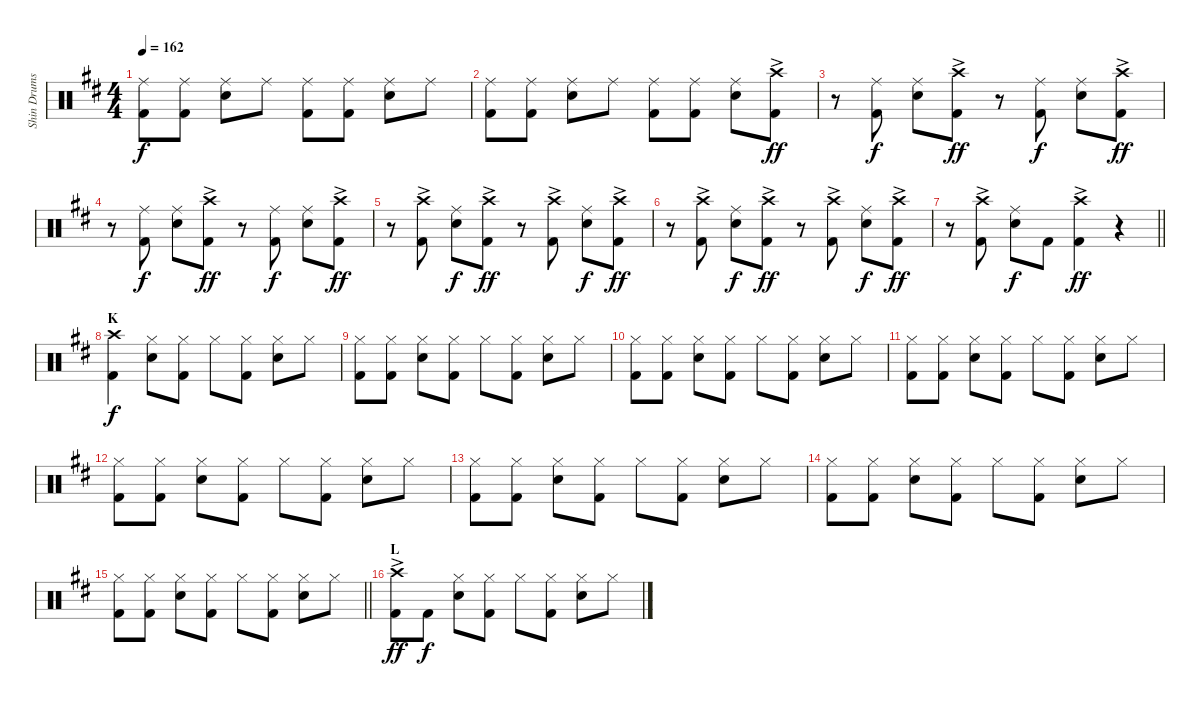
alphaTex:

\track ("Shin Drums" "Shin Drums") {instrument percussion}
\staff {score}
\articulation defaults
\ts (4 4)
\tempo 162
\clef neutral
\ks d
("Ride (middle)" "Kick (hit) 2").8{dy f} ("Ride (middle)" "Kick (hit) 2").8 ("Ride (middle)" "Snare (hit) 2").8 "Ride (middle)".8 ("Ride (middle)" "Kick (hit) 2").8 ("Ride (middle)" "Kick (hit) 2").8 ("Ride (middle)" "Snare (hit) 2").8 "Ride (middle)".8 |
("Ride (middle)" "Kick (hit) 2").8 ("Ride (middle)" "Kick (hit) 2").8 ("Ride (middle)" "Snare (hit) 2").8 "Ride (middle)".8 ("Ride (middle)" "Kick (hit) 2").8 ("Ride (middle)" "Kick (hit) 2").8 ("Ride (middle)" "Snare (hit) 2").8 ("Crash high (hit)"{ac} "Kick (hit) 2").8{dy ff} |
r.8 ("Ride (middle)" "Kick (hit) 2").8{dy f} ("Ride (middle)" "Snare (hit) 2").8 ("Crash high (hit)"{ac} "Kick (hit) 2").8{dy ff} r.8 ("Ride (middle)" "Kick (hit) 2").8{dy f} ("Ride (middle)" "Snare (hit) 2").8 ("Crash high (hit)"{ac} "Kick (hit) 2").8{dy ff} |
r.8 ("Ride (middle)" "Kick (hit) 2").8{dy f} ("Ride (middle)" "Snare (hit) 2").8 ("Crash high (hit)"{ac} "Kick (hit) 2").8{dy ff} r.8 ("Ride (middle)" "Kick (hit) 2").8{dy f} ("Ride (middle)" "Snare (hit) 2").8 ("Crash high (hit)"{ac} "Kick (hit) 2").8{dy ff} |
r.8 ("Crash high (hit)"{ac} "Kick (hit) 2").8 ("Ride (middle)" "Snare (hit) 2").8{dy f} ("Crash high (hit)"{ac} "Kick (hit) 2").8{dy ff} r.8 ("Crash high (hit)"{ac} "Kick (hit) 2").8 ("Ride (middle)" "Snare (hit) 2").8{dy f} ("Crash high (hit)"{ac} "Kick (hit) 2").8{dy ff} |
r.8 ("Crash high (hit)"{ac} "Kick (hit) 2").8 ("Ride (middle)" "Snare (hit) 2").8{dy f} ("Crash high (hit)"{ac} "Kick (hit) 2").8{dy ff} r.8 ("Crash high (hit)"{ac} "Kick (hit) 2").8 ("Ride (middle)" "Snare (hit) 2").8{dy f} ("Crash high (hit)"{ac} "Kick (hit) 2").8{dy ff} |
\barLineRight lightlight
r.8 ("Crash high (hit)"{ac} "Kick (hit) 2").8 ("Ride (middle)" "Snare (hit) 2").8{dy f} "Kick (hit) 2".8 ("Crash high (hit)"{ac} "Kick (hit) 2").4{dy ff} r.4 |
\section ("" "K")
("Crash high (hit)" "Kick (hit) 2").4{dy f} ("Hi-Hat (closed)" "Snare (hit) 2").8 ("Hi-Hat (closed)" "Kick (hit) 2").8 "Hi-Hat (closed)".8 ("Hi-Hat (closed)" "Kick (hit) 2").8 ("Hi-Hat (closed)" "Snare (hit) 2").8 "Hi-Hat (closed)".8 |
("Hi-Hat (closed)" "Kick (hit) 2").8 ("Hi-Hat (closed)" "Kick (hit) 2").8 ("Hi-Hat (closed)" "Snare (hit) 2").8 ("Hi-Hat (closed)" "Kick (hit) 2").8 "Hi-Hat (closed)".8 ("Hi-Hat (closed)" "Kick (hit) 2").8 ("Hi-Hat (closed)" "Snare (hit) 2").8 "Hi-Hat (closed)".8 |
("Hi-Hat (closed)" "Kick (hit) 2").8 ("Hi-Hat (closed)" "Kick (hit) 2").8 ("Hi-Hat (closed)" "Snare (hit) 2").8 ("Hi-Hat (closed)" "Kick (hit) 2").8 "Hi-Hat (closed)".8 ("Hi-Hat (closed)" "Kick (hit) 2").8 ("Hi-Hat (closed)" "Snare (hit) 2").8 "Hi-Hat (closed)".8 |
("Hi-Hat (closed)" "Kick (hit) 2").8 ("Hi-Hat (closed)" "Kick (hit) 2").8 ("Hi-Hat (closed)" "Snare (hit) 2").8 ("Hi-Hat (closed)" "Kick (hit) 2").8 "Hi-Hat (closed)".8 ("Hi-Hat (closed)" "Kick (hit) 2").8 ("Hi-Hat (closed)" "Snare (hit) 2").8 "Hi-Hat (closed)".8 |
("Hi-Hat (closed)" "Kick (hit) 2").8 ("Hi-Hat (closed)" "Kick (hit) 2").8 ("Hi-Hat (closed)" "Snare (hit) 2").8 ("Hi-Hat (closed)" "Kick (hit) 2").8 "Hi-Hat (closed)".8 ("Hi-Hat (closed)" "Kick (hit) 2").8 ("Hi-Hat (closed)" "Snare (hit) 2").8 "Hi-Hat (closed)".8 |
("Hi-Hat (closed)" "Kick (hit) 2").8 ("Hi-Hat (closed)" "Kick (hit) 2").8 ("Hi-Hat (closed)" "Snare (hit) 2").8 ("Hi-Hat (closed)" "Kick (hit) 2").8 "Hi-Hat (closed)".8 ("Hi-Hat (closed)" "Kick (hit) 2").8 ("Hi-Hat (closed)" "Snare (hit) 2").8 "Hi-Hat (closed)".8 |
("Hi-Hat (closed)" "Kick (hit) 2").8 ("Hi-Hat (closed)" "Kick (hit) 2").8 ("Hi-Hat (closed)" "Snare (hit) 2").8 ("Hi-Hat (closed)" "Kick (hit) 2").8 "Hi-Hat (closed)".8 ("Hi-Hat (closed)" "Kick (hit) 2").8 ("Hi-Hat (closed)" "Snare (hit) 2").8 "Hi-Hat (closed)".8 |
\barLineRight lightlight
("Hi-Hat (closed)" "Kick (hit) 2").8 ("Hi-Hat (closed)" "Kick (hit) 2").8 ("Hi-Hat (closed)" "Snare (hit) 2").8 ("Hi-Hat (closed)" "Kick (hit) 2").8 "Hi-Hat (closed)".8 ("Hi-Hat (closed)" "Kick (hit) 2").8 ("Hi-Hat (closed)" "Snare (hit) 2").8 "Hi-Hat (closed)".8 |
\section ("" "L")
("Crash high (hit)"{ac} "Kick (hit) 2").8{dy ff} "Kick (hit) 2".8{dy f} ("Hi-Hat (closed)" "Snare (hit) 2").8 ("Hi-Hat (closed)" "Kick (hit) 2").8 "Hi-Hat (closed)".8 ("Hi-Hat (closed)" "Kick (hit) 2").8 ("Hi-Hat (closed)" "Snare (hit) 2").8 "Hi-Hat (closed)".8
